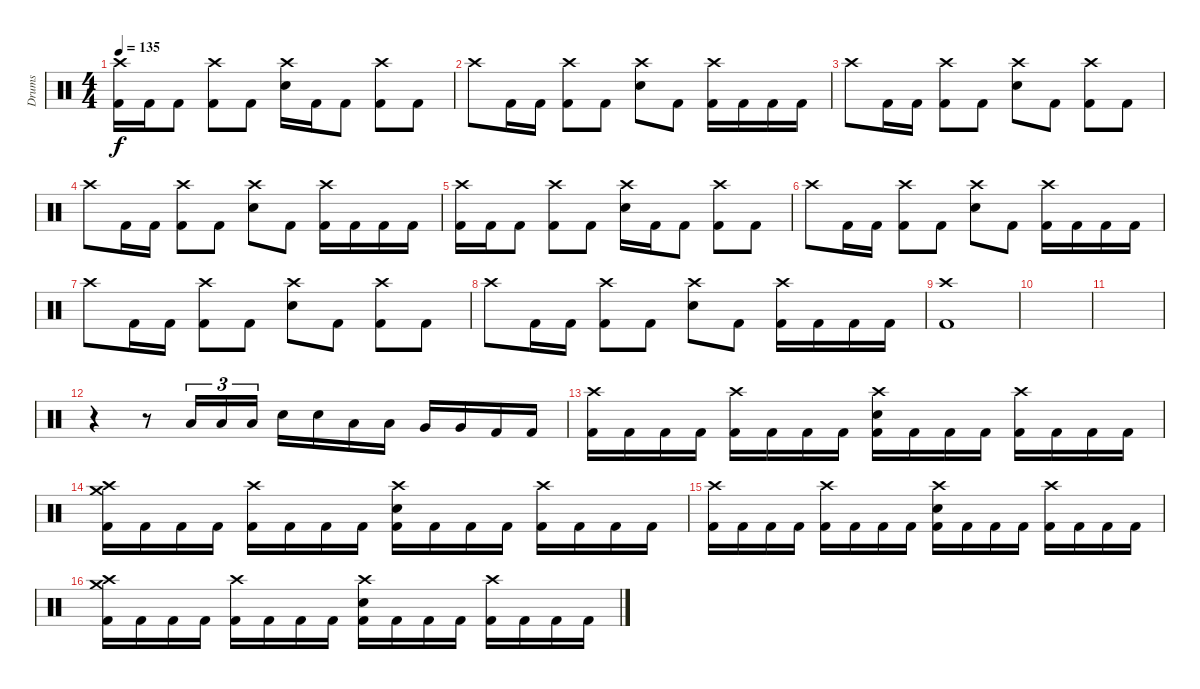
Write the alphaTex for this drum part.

\track ("Drums" "Drums") {instrument percussion}
\staff {score}
\articulation defaults
\ts (4 4)
\tempo 135
\clef neutral
\ks c
("Crash high (hit)" "Kick (hit) 2").16{dy f} "Kick (hit) 2".16 "Kick (hit) 2".8 ("Crash high (hit)" "Kick (hit) 2").8 "Kick (hit) 2".8 ("Crash high (hit)" "Electric Snare (hit)").16 "Kick (hit) 2".16 "Kick (hit) 2".8 ("Crash high (hit)" "Kick (hit) 2").8 "Kick (hit) 2".8 |
"Crash high (hit)".8 "Kick (hit) 2".16 "Kick (hit) 2".16 ("Crash high (hit)" "Kick (hit) 2").8 "Kick (hit) 2".8 ("Crash high (hit)" "Electric Snare (hit)").8 "Kick (hit) 2".8 ("Crash high (hit)" "Kick (hit) 2").16 "Kick (hit) 2".16 "Kick (hit) 2".16 "Kick (hit) 2".16 |
"Crash high (hit)".8 "Kick (hit) 2".16 "Kick (hit) 2".16 ("Crash high (hit)" "Kick (hit) 2").8 "Kick (hit) 2".8 ("Crash high (hit)" "Electric Snare (hit)").8 "Kick (hit) 2".8 ("Crash high (hit)" "Kick (hit) 2").8 "Kick (hit) 2".8 |
"Crash high (hit)".8 "Kick (hit) 2".16 "Kick (hit) 2".16 ("Crash high (hit)" "Kick (hit) 2").8 "Kick (hit) 2".8 ("Crash high (hit)" "Electric Snare (hit)").8 "Kick (hit) 2".8 ("Crash high (hit)" "Kick (hit) 2").16 "Kick (hit) 2".16 "Kick (hit) 2".16 "Kick (hit) 2".16 |
("Crash high (hit)" "Kick (hit) 2").16 "Kick (hit) 2".16 "Kick (hit) 2".8 ("Crash high (hit)" "Kick (hit) 2").8 "Kick (hit) 2".8 ("Crash high (hit)" "Electric Snare (hit)").16 "Kick (hit) 2".16 "Kick (hit) 2".8 ("Crash high (hit)" "Kick (hit) 2").8 "Kick (hit) 2".8 |
"Crash high (hit)".8 "Kick (hit) 2".16 "Kick (hit) 2".16 ("Crash high (hit)" "Kick (hit) 2").8 "Kick (hit) 2".8 ("Crash high (hit)" "Electric Snare (hit)").8 "Kick (hit) 2".8 ("Crash high (hit)" "Kick (hit) 2").16 "Kick (hit) 2".16 "Kick (hit) 2".16 "Kick (hit) 2".16 |
"Crash high (hit)".8 "Kick (hit) 2".16 "Kick (hit) 2".16 ("Crash high (hit)" "Kick (hit) 2").8 "Kick (hit) 2".8 ("Crash high (hit)" "Electric Snare (hit)").8 "Kick (hit) 2".8 ("Crash high (hit)" "Kick (hit) 2").8 "Kick (hit) 2".8 |
"Crash high (hit)".8 "Kick (hit) 2".16 "Kick (hit) 2".16 ("Crash high (hit)" "Kick (hit) 2").8 "Kick (hit) 2".8 ("Crash high (hit)" "Electric Snare (hit)").8 "Kick (hit) 2".8 ("Crash high (hit)" "Kick (hit) 2").16 "Kick (hit) 2".16 "Kick (hit) 2".16 "Kick (hit) 2".16 |
("Crash high (hit)" "Kick (hit) 2").1 |
|
|
r.4 r.8 "Low Tom (hit)".16{tu (3 2)} "Low Tom (hit)".16{tu (3 2)} "Low Tom (hit)".16{tu (3 2)} "Electric Snare (hit)".16 "Electric Snare (hit)".16 "Low Floor Tom (hit)".16 "Low Floor Tom (hit)".16 "Very Low Tom (hit)".16 "Very Low Tom (hit)".16 "Kick (hit) 2".16 "Kick (hit) 2".16 |
("Crash high (hit)" "Kick (hit) 2").16 "Kick (hit) 2".16 "Kick (hit) 2".16 "Kick (hit) 2".16 ("Crash high (hit)" "Kick (hit) 2").16 "Kick (hit) 2".16 "Kick (hit) 2".16 "Kick (hit) 2".16 ("Crash high (hit)" "Kick (hit) 2" "Electric Snare (hit)").16 "Kick (hit) 2".16 "Kick (hit) 2".16 "Kick (hit) 2".16 ("Crash high (hit)" "Kick (hit) 2").16 "Kick (hit) 2".16 "Kick (hit) 2".16 "Kick (hit) 2".16 |
("Crash high (hit)" "Kick (hit) 2" "Crash medium (hit)").16 "Kick (hit) 2".16 "Kick (hit) 2".16 "Kick (hit) 2".16 ("Crash high (hit)" "Kick (hit) 2").16 "Kick (hit) 2".16 "Kick (hit) 2".16 "Kick (hit) 2".16 ("Crash high (hit)" "Kick (hit) 2" "Electric Snare (hit)").16 "Kick (hit) 2".16 "Kick (hit) 2".16 "Kick (hit) 2".16 ("Crash high (hit)" "Kick (hit) 2").16 "Kick (hit) 2".16 "Kick (hit) 2".16 "Kick (hit) 2".16 |
("Crash high (hit)" "Kick (hit) 2").16 "Kick (hit) 2".16 "Kick (hit) 2".16 "Kick (hit) 2".16 ("Crash high (hit)" "Kick (hit) 2").16 "Kick (hit) 2".16 "Kick (hit) 2".16 "Kick (hit) 2".16 ("Crash high (hit)" "Kick (hit) 2" "Electric Snare (hit)").16 "Kick (hit) 2".16 "Kick (hit) 2".16 "Kick (hit) 2".16 ("Crash high (hit)" "Kick (hit) 2").16 "Kick (hit) 2".16 "Kick (hit) 2".16 "Kick (hit) 2".16 |
("Crash high (hit)" "Kick (hit) 2" "Crash medium (hit)").16 "Kick (hit) 2".16 "Kick (hit) 2".16 "Kick (hit) 2".16 ("Crash high (hit)" "Kick (hit) 2").16 "Kick (hit) 2".16 "Kick (hit) 2".16 "Kick (hit) 2".16 ("Crash high (hit)" "Kick (hit) 2" "Electric Snare (hit)").16 "Kick (hit) 2".16 "Kick (hit) 2".16 "Kick (hit) 2".16 ("Crash high (hit)" "Kick (hit) 2").16 "Kick (hit) 2".16 "Kick (hit) 2".16 "Kick (hit) 2".16
